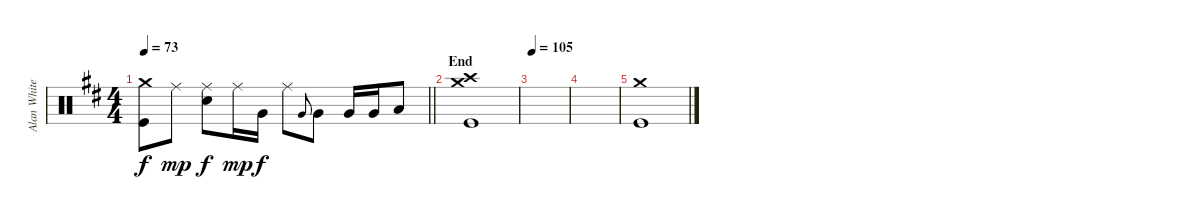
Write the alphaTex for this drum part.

\track ("Alan White" "Alan White") {instrument percussion}
\staff {score}
\articulation defaults
\ts (4 4)
\tempo 73
\clef neutral
\barLineRight lightlight
\ks d
("Crash medium (hit)" "Kick (hit)").8{dy f} "Ride (middle)".8{dy mp} ("Ride (middle)" "Electric Snare (hit)").8{dy f} "Ride (middle)".16{dy mp} "Very Low Tom (hit)".16{dy f} "Ride (middle)".8 "Very Low Tom (hit)".8{gr onbeat} "Very Low Tom (hit)".8 "Very Low Tom (hit)".16 "Very Low Tom (hit)".16 "Low Floor Tom (hit)".8 |
\section ("" "End")
("Crash medium (hit)" "Crash high (hit)" "Kick (hit)").1 |
\tempo 105
|
|
("Crash medium (hit)" "Kick (hit)").1
